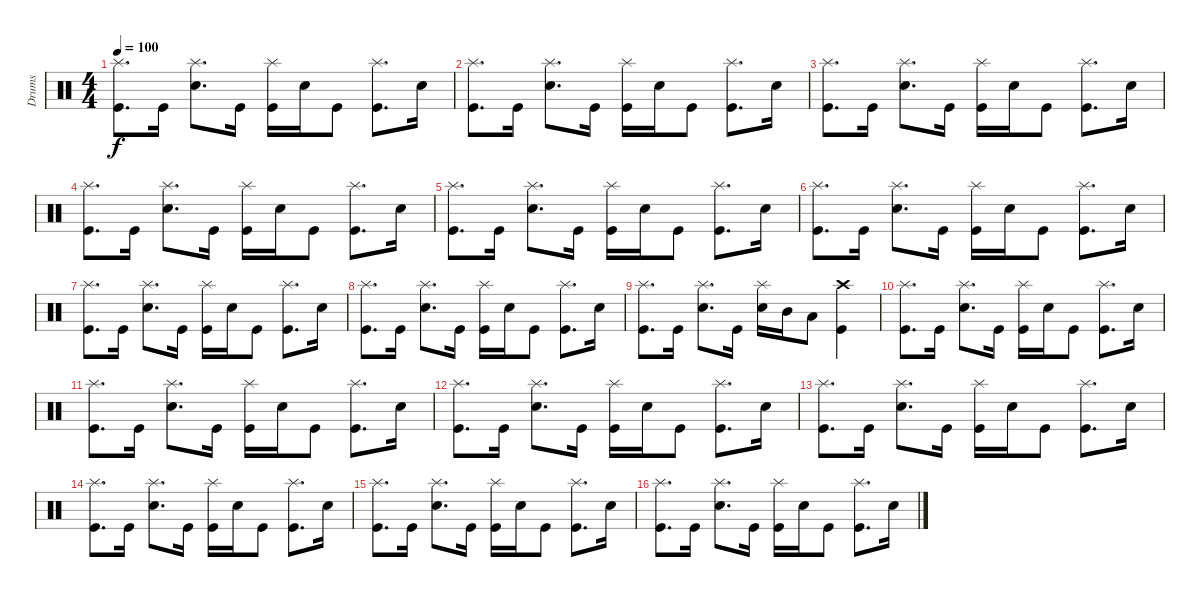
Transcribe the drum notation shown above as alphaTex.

\track ("Drums" "Drums") {instrument percussion}
\staff {score}
\articulation defaults
\ts (4 4)
\tempo 100
\clef neutral
\ks c
("Splash (hit)" "Kick (hit)").8{d dy f} "Kick (hit)".16 ("Splash (hit)" "Snare (hit) 2").8{d} "Kick (hit)".16 ("Splash (hit)" "Kick (hit)").16 "Snare (hit) 2".16 "Kick (hit)".8 ("Splash (hit)" "Kick (hit)").8{d} "Snare (hit) 2".16 |
("Splash (hit)" "Kick (hit)").8{d} "Kick (hit)".16 ("Splash (hit)" "Snare (hit) 2").8{d} "Kick (hit)".16 ("Splash (hit)" "Kick (hit)").16 "Snare (hit) 2".16 "Kick (hit)".8 ("Splash (hit)" "Kick (hit)").8{d} "Snare (hit) 2".16 |
("Splash (hit)" "Kick (hit)").8{d} "Kick (hit)".16 ("Splash (hit)" "Snare (hit) 2").8{d} "Kick (hit)".16 ("Splash (hit)" "Kick (hit)").16 "Snare (hit) 2".16 "Kick (hit)".8 ("Splash (hit)" "Kick (hit)").8{d} "Snare (hit) 2".16 |
("Splash (hit)" "Kick (hit)").8{d} "Kick (hit)".16 ("Splash (hit)" "Snare (hit) 2").8{d} "Kick (hit)".16 ("Splash (hit)" "Kick (hit)").16 "Snare (hit) 2".16 "Kick (hit)".8 ("Splash (hit)" "Kick (hit)").8{d} "Snare (hit) 2".16 |
("Splash (hit)" "Kick (hit)").8{d} "Kick (hit)".16 ("Splash (hit)" "Snare (hit) 2").8{d} "Kick (hit)".16 ("Splash (hit)" "Kick (hit)").16 "Snare (hit) 2".16 "Kick (hit)".8 ("Splash (hit)" "Kick (hit)").8{d} "Snare (hit) 2".16 |
("Splash (hit)" "Kick (hit)").8{d} "Kick (hit)".16 ("Splash (hit)" "Snare (hit) 2").8{d} "Kick (hit)".16 ("Splash (hit)" "Kick (hit)").16 "Snare (hit) 2".16 "Kick (hit)".8 ("Splash (hit)" "Kick (hit)").8{d} "Snare (hit) 2".16 |
("Splash (hit)" "Kick (hit)").8{d} "Kick (hit)".16 ("Splash (hit)" "Snare (hit) 2").8{d} "Kick (hit)".16 ("Splash (hit)" "Kick (hit)").16 "Snare (hit) 2".16 "Kick (hit)".8 ("Splash (hit)" "Kick (hit)").8{d} "Snare (hit) 2".16 |
("Splash (hit)" "Kick (hit)").8{d} "Kick (hit)".16 ("Splash (hit)" "Snare (hit) 2").8{d} "Kick (hit)".16 ("Splash (hit)" "Kick (hit)").16 "Snare (hit) 2".16 "Kick (hit)".8 ("Splash (hit)" "Kick (hit)").8{d} "Snare (hit) 2".16 |
("Splash (hit)" "Kick (hit)").8{d} "Kick (hit)".16 ("Splash (hit)" "Snare (hit) 2").8{d} "Kick (hit)".16 ("Splash (hit)" "Snare (hit) 2").16 "Mid Tom (hit)".16 "Low Tom (hit)".8 ("Crash high (hit)" "Kick (hit)").4 |
("Splash (hit)" "Kick (hit)").8{d} "Kick (hit)".16 ("Splash (hit)" "Snare (hit) 2").8{d} "Kick (hit)".16 ("Splash (hit)" "Kick (hit)").16 "Snare (hit) 2".16 "Kick (hit)".8 ("Splash (hit)" "Kick (hit)").8{d} "Snare (hit) 2".16 |
("Splash (hit)" "Kick (hit)").8{d} "Kick (hit)".16 ("Splash (hit)" "Snare (hit) 2").8{d} "Kick (hit)".16 ("Splash (hit)" "Kick (hit)").16 "Snare (hit) 2".16 "Kick (hit)".8 ("Splash (hit)" "Kick (hit)").8{d} "Snare (hit) 2".16 |
("Splash (hit)" "Kick (hit)").8{d} "Kick (hit)".16 ("Splash (hit)" "Snare (hit) 2").8{d} "Kick (hit)".16 ("Splash (hit)" "Kick (hit)").16 "Snare (hit) 2".16 "Kick (hit)".8 ("Splash (hit)" "Kick (hit)").8{d} "Snare (hit) 2".16 |
("Splash (hit)" "Kick (hit)").8{d} "Kick (hit)".16 ("Splash (hit)" "Snare (hit) 2").8{d} "Kick (hit)".16 ("Splash (hit)" "Kick (hit)").16 "Snare (hit) 2".16 "Kick (hit)".8 ("Splash (hit)" "Kick (hit)").8{d} "Snare (hit) 2".16 |
("Splash (hit)" "Kick (hit)").8{d} "Kick (hit)".16 ("Splash (hit)" "Snare (hit) 2").8{d} "Kick (hit)".16 ("Splash (hit)" "Kick (hit)").16 "Snare (hit) 2".16 "Kick (hit)".8 ("Splash (hit)" "Kick (hit)").8{d} "Snare (hit) 2".16 |
("Splash (hit)" "Kick (hit)").8{d} "Kick (hit)".16 ("Splash (hit)" "Snare (hit) 2").8{d} "Kick (hit)".16 ("Splash (hit)" "Kick (hit)").16 "Snare (hit) 2".16 "Kick (hit)".8 ("Splash (hit)" "Kick (hit)").8{d} "Snare (hit) 2".16 |
("Splash (hit)" "Kick (hit)").8{d} "Kick (hit)".16 ("Splash (hit)" "Snare (hit) 2").8{d} "Kick (hit)".16 ("Splash (hit)" "Kick (hit)").16 "Snare (hit) 2".16 "Kick (hit)".8 ("Splash (hit)" "Kick (hit)").8{d} "Snare (hit) 2".16
